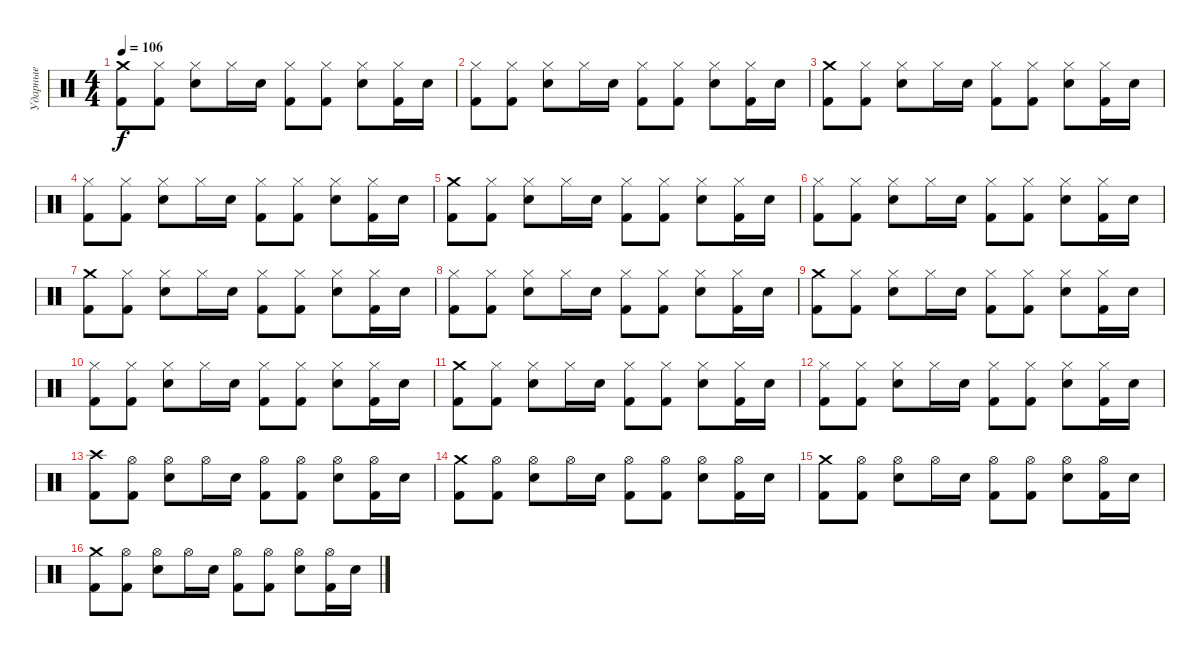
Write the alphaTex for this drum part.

\track ("Ударные" "Ударные") {instrument percussion}
\staff {score}
\articulation defaults
\ts (4 4)
\tempo 106
\clef neutral
\ks c
("Crash medium (hit)" "Kick (hit) 2").8{dy f} ("Hi-Hat (closed)" "Kick (hit) 2").8 ("Hi-Hat (closed)" "Electric Snare (hit)").8 "Hi-Hat (closed)".16 "Electric Snare (hit)".16 ("Hi-Hat (closed)" "Kick (hit) 2").8 ("Hi-Hat (closed)" "Kick (hit) 2").8 ("Hi-Hat (closed)" "Electric Snare (hit)").8 ("Hi-Hat (closed)" "Kick (hit) 2").16 "Electric Snare (hit)".16 |
("Hi-Hat (closed)" "Kick (hit) 2").8 ("Hi-Hat (closed)" "Kick (hit) 2").8 ("Hi-Hat (closed)" "Electric Snare (hit)").8 "Hi-Hat (closed)".16 "Electric Snare (hit)".16 ("Hi-Hat (closed)" "Kick (hit) 2").8 ("Hi-Hat (closed)" "Kick (hit) 2").8 ("Hi-Hat (closed)" "Electric Snare (hit)").8 ("Hi-Hat (closed)" "Kick (hit) 2").16 "Electric Snare (hit)".16 |
("Crash medium (hit)" "Kick (hit) 2").8 ("Hi-Hat (closed)" "Kick (hit) 2").8 ("Hi-Hat (closed)" "Electric Snare (hit)").8 "Hi-Hat (closed)".16 "Electric Snare (hit)".16 ("Hi-Hat (closed)" "Kick (hit) 2").8 ("Hi-Hat (closed)" "Kick (hit) 2").8 ("Hi-Hat (closed)" "Electric Snare (hit)").8 ("Hi-Hat (closed)" "Kick (hit) 2").16 "Electric Snare (hit)".16 |
("Hi-Hat (closed)" "Kick (hit) 2").8 ("Hi-Hat (closed)" "Kick (hit) 2").8 ("Hi-Hat (closed)" "Electric Snare (hit)").8 "Hi-Hat (closed)".16 "Electric Snare (hit)".16 ("Hi-Hat (closed)" "Kick (hit) 2").8 ("Hi-Hat (closed)" "Kick (hit) 2").8 ("Hi-Hat (closed)" "Electric Snare (hit)").8 ("Hi-Hat (closed)" "Kick (hit) 2").16 "Electric Snare (hit)".16 |
("Crash medium (hit)" "Kick (hit) 2").8 ("Hi-Hat (closed)" "Kick (hit) 2").8 ("Hi-Hat (closed)" "Electric Snare (hit)").8 "Hi-Hat (closed)".16 "Electric Snare (hit)".16 ("Hi-Hat (closed)" "Kick (hit) 2").8 ("Hi-Hat (closed)" "Kick (hit) 2").8 ("Hi-Hat (closed)" "Electric Snare (hit)").8 ("Hi-Hat (closed)" "Kick (hit) 2").16 "Electric Snare (hit)".16 |
("Hi-Hat (closed)" "Kick (hit) 2").8 ("Hi-Hat (closed)" "Kick (hit) 2").8 ("Hi-Hat (closed)" "Electric Snare (hit)").8 "Hi-Hat (closed)".16 "Electric Snare (hit)".16 ("Hi-Hat (closed)" "Kick (hit) 2").8 ("Hi-Hat (closed)" "Kick (hit) 2").8 ("Hi-Hat (closed)" "Electric Snare (hit)").8 ("Hi-Hat (closed)" "Kick (hit) 2").16 "Electric Snare (hit)".16 |
("Crash medium (hit)" "Kick (hit) 2").8 ("Hi-Hat (closed)" "Kick (hit) 2").8 ("Hi-Hat (closed)" "Electric Snare (hit)").8 "Hi-Hat (closed)".16 "Electric Snare (hit)".16 ("Hi-Hat (closed)" "Kick (hit) 2").8 ("Hi-Hat (closed)" "Kick (hit) 2").8 ("Hi-Hat (closed)" "Electric Snare (hit)").8 ("Hi-Hat (closed)" "Kick (hit) 2").16 "Electric Snare (hit)".16 |
("Hi-Hat (closed)" "Kick (hit) 2").8 ("Hi-Hat (closed)" "Kick (hit) 2").8 ("Hi-Hat (closed)" "Electric Snare (hit)").8 "Hi-Hat (closed)".16 "Electric Snare (hit)".16 ("Hi-Hat (closed)" "Kick (hit) 2").8 ("Hi-Hat (closed)" "Kick (hit) 2").8 ("Hi-Hat (closed)" "Electric Snare (hit)").8 ("Hi-Hat (closed)" "Kick (hit) 2").16 "Electric Snare (hit)".16 |
("Crash medium (hit)" "Kick (hit) 2").8 ("Hi-Hat (closed)" "Kick (hit) 2").8 ("Hi-Hat (closed)" "Electric Snare (hit)").8 "Hi-Hat (closed)".16 "Electric Snare (hit)".16 ("Hi-Hat (closed)" "Kick (hit) 2").8 ("Hi-Hat (closed)" "Kick (hit) 2").8 ("Hi-Hat (closed)" "Electric Snare (hit)").8 ("Hi-Hat (closed)" "Kick (hit) 2").16 "Electric Snare (hit)".16 |
("Hi-Hat (closed)" "Kick (hit) 2").8 ("Hi-Hat (closed)" "Kick (hit) 2").8 ("Hi-Hat (closed)" "Electric Snare (hit)").8 "Hi-Hat (closed)".16 "Electric Snare (hit)".16 ("Hi-Hat (closed)" "Kick (hit) 2").8 ("Hi-Hat (closed)" "Kick (hit) 2").8 ("Hi-Hat (closed)" "Electric Snare (hit)").8 ("Hi-Hat (closed)" "Kick (hit) 2").16 "Electric Snare (hit)".16 |
("Crash medium (hit)" "Kick (hit) 2").8 ("Hi-Hat (closed)" "Kick (hit) 2").8 ("Hi-Hat (closed)" "Electric Snare (hit)").8 "Hi-Hat (closed)".16 "Electric Snare (hit)".16 ("Hi-Hat (closed)" "Kick (hit) 2").8 ("Hi-Hat (closed)" "Kick (hit) 2").8 ("Hi-Hat (closed)" "Electric Snare (hit)").8 ("Hi-Hat (closed)" "Kick (hit) 2").16 "Electric Snare (hit)".16 |
("Hi-Hat (closed)" "Kick (hit) 2").8 ("Hi-Hat (closed)" "Kick (hit) 2").8 ("Hi-Hat (closed)" "Electric Snare (hit)").8 "Hi-Hat (closed)".16 "Electric Snare (hit)".16 ("Hi-Hat (closed)" "Kick (hit) 2").8 ("Hi-Hat (closed)" "Kick (hit) 2").8 ("Hi-Hat (closed)" "Electric Snare (hit)").8 ("Hi-Hat (closed)" "Kick (hit) 2").16 "Electric Snare (hit)".16 |
("Crash high (hit)" "Kick (hit) 2").8 ("Hi-Hat (open)" "Kick (hit) 2").8 ("Hi-Hat (open)" "Electric Snare (hit)").8 "Hi-Hat (open)".16 "Electric Snare (hit)".16 ("Hi-Hat (open)" "Kick (hit) 2").8 ("Hi-Hat (open)" "Kick (hit) 2").8 ("Hi-Hat (open)" "Electric Snare (hit)").8 ("Hi-Hat (open)" "Kick (hit) 2").16 "Electric Snare (hit)".16 |
("Crash medium (hit)" "Kick (hit) 2").8 ("Hi-Hat (open)" "Kick (hit) 2").8 ("Hi-Hat (open)" "Electric Snare (hit)").8 "Hi-Hat (open)".16 "Electric Snare (hit)".16 ("Hi-Hat (open)" "Kick (hit) 2").8 ("Hi-Hat (open)" "Kick (hit) 2").8 ("Hi-Hat (open)" "Electric Snare (hit)").8 ("Hi-Hat (open)" "Kick (hit) 2").16 "Electric Snare (hit)".16 |
("Crash medium (hit)" "Kick (hit) 2").8 ("Hi-Hat (open)" "Kick (hit) 2").8 ("Hi-Hat (open)" "Electric Snare (hit)").8 "Hi-Hat (open)".16 "Electric Snare (hit)".16 ("Hi-Hat (open)" "Kick (hit) 2").8 ("Hi-Hat (open)" "Kick (hit) 2").8 ("Hi-Hat (open)" "Electric Snare (hit)").8 ("Hi-Hat (open)" "Kick (hit) 2").16 "Electric Snare (hit)".16 |
("Crash medium (hit)" "Kick (hit) 2").8 ("Hi-Hat (open)" "Kick (hit) 2").8 ("Hi-Hat (open)" "Electric Snare (hit)").8 "Hi-Hat (open)".16 "Electric Snare (hit)".16 ("Hi-Hat (open)" "Kick (hit) 2").8 ("Hi-Hat (open)" "Kick (hit) 2").8 ("Hi-Hat (open)" "Electric Snare (hit)").8 ("Hi-Hat (open)" "Kick (hit) 2").16 "Electric Snare (hit)".16
